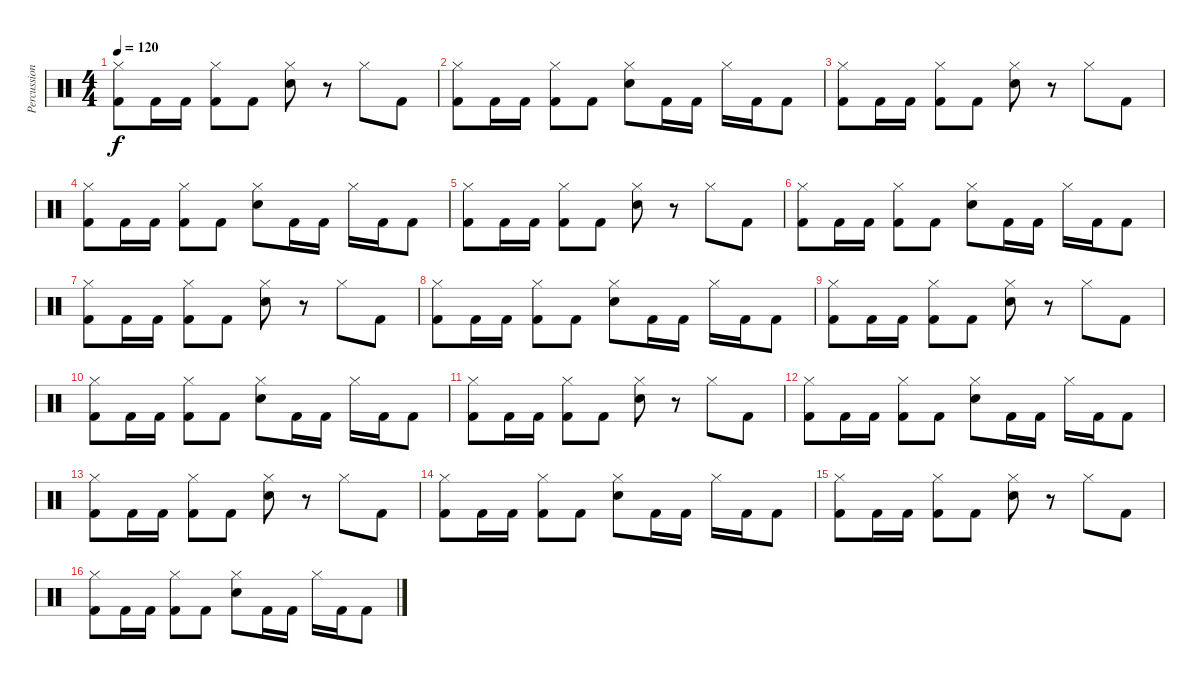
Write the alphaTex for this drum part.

\track ("Percussions" "Percussion") {instrument percussion}
\staff {score}
\articulation defaults
\ts (4 4)
\tempo 120
\clef neutral
\ks c
("Hi-Hat (closed)" "Kick (hit) 2").8{dy f} "Kick (hit) 2".16 "Kick (hit) 2".16 ("Hi-Hat (closed)" "Kick (hit) 2").8 "Kick (hit) 2".8 ("Hi-Hat (closed)" "Snare (hit) 2").8 r.8 "Hi-Hat (closed)".8 "Kick (hit) 2".8 |
("Hi-Hat (closed)" "Kick (hit) 2").8 "Kick (hit) 2".16 "Kick (hit) 2".16 ("Hi-Hat (closed)" "Kick (hit) 2").8 "Kick (hit) 2".8 ("Hi-Hat (closed)" "Snare (hit) 2").8 "Kick (hit) 2".16 "Kick (hit) 2".16 "Hi-Hat (closed)".16 "Kick (hit) 2".16 "Kick (hit) 2".8 |
("Hi-Hat (closed)" "Kick (hit) 2").8 "Kick (hit) 2".16 "Kick (hit) 2".16 ("Hi-Hat (closed)" "Kick (hit) 2").8 "Kick (hit) 2".8 ("Hi-Hat (closed)" "Snare (hit) 2").8 r.8 "Hi-Hat (closed)".8 "Kick (hit) 2".8 |
("Hi-Hat (closed)" "Kick (hit) 2").8 "Kick (hit) 2".16 "Kick (hit) 2".16 ("Hi-Hat (closed)" "Kick (hit) 2").8 "Kick (hit) 2".8 ("Hi-Hat (closed)" "Snare (hit) 2").8 "Kick (hit) 2".16 "Kick (hit) 2".16 "Hi-Hat (closed)".16 "Kick (hit) 2".16 "Kick (hit) 2".8 |
("Hi-Hat (closed)" "Kick (hit) 2").8 "Kick (hit) 2".16 "Kick (hit) 2".16 ("Hi-Hat (closed)" "Kick (hit) 2").8 "Kick (hit) 2".8 ("Hi-Hat (closed)" "Snare (hit) 2").8 r.8 "Hi-Hat (closed)".8 "Kick (hit) 2".8 |
("Hi-Hat (closed)" "Kick (hit) 2").8 "Kick (hit) 2".16 "Kick (hit) 2".16 ("Hi-Hat (closed)" "Kick (hit) 2").8 "Kick (hit) 2".8 ("Hi-Hat (closed)" "Snare (hit) 2").8 "Kick (hit) 2".16 "Kick (hit) 2".16 "Hi-Hat (closed)".16 "Kick (hit) 2".16 "Kick (hit) 2".8 |
("Hi-Hat (closed)" "Kick (hit) 2").8 "Kick (hit) 2".16 "Kick (hit) 2".16 ("Hi-Hat (closed)" "Kick (hit) 2").8 "Kick (hit) 2".8 ("Hi-Hat (closed)" "Snare (hit) 2").8 r.8 "Hi-Hat (closed)".8 "Kick (hit) 2".8 |
("Hi-Hat (closed)" "Kick (hit) 2").8 "Kick (hit) 2".16 "Kick (hit) 2".16 ("Hi-Hat (closed)" "Kick (hit) 2").8 "Kick (hit) 2".8 ("Hi-Hat (closed)" "Snare (hit) 2").8 "Kick (hit) 2".16 "Kick (hit) 2".16 "Hi-Hat (closed)".16 "Kick (hit) 2".16 "Kick (hit) 2".8 |
("Hi-Hat (closed)" "Kick (hit) 2").8 "Kick (hit) 2".16 "Kick (hit) 2".16 ("Hi-Hat (closed)" "Kick (hit) 2").8 "Kick (hit) 2".8 ("Hi-Hat (closed)" "Snare (hit) 2").8 r.8 "Hi-Hat (closed)".8 "Kick (hit) 2".8 |
("Hi-Hat (closed)" "Kick (hit) 2").8 "Kick (hit) 2".16 "Kick (hit) 2".16 ("Hi-Hat (closed)" "Kick (hit) 2").8 "Kick (hit) 2".8 ("Hi-Hat (closed)" "Snare (hit) 2").8 "Kick (hit) 2".16 "Kick (hit) 2".16 "Hi-Hat (closed)".16 "Kick (hit) 2".16 "Kick (hit) 2".8 |
("Hi-Hat (closed)" "Kick (hit) 2").8 "Kick (hit) 2".16 "Kick (hit) 2".16 ("Hi-Hat (closed)" "Kick (hit) 2").8 "Kick (hit) 2".8 ("Hi-Hat (closed)" "Snare (hit) 2").8 r.8 "Hi-Hat (closed)".8 "Kick (hit) 2".8 |
("Hi-Hat (closed)" "Kick (hit) 2").8 "Kick (hit) 2".16 "Kick (hit) 2".16 ("Hi-Hat (closed)" "Kick (hit) 2").8 "Kick (hit) 2".8 ("Hi-Hat (closed)" "Snare (hit) 2").8 "Kick (hit) 2".16 "Kick (hit) 2".16 "Hi-Hat (closed)".16 "Kick (hit) 2".16 "Kick (hit) 2".8 |
("Hi-Hat (closed)" "Kick (hit) 2").8 "Kick (hit) 2".16 "Kick (hit) 2".16 ("Hi-Hat (closed)" "Kick (hit) 2").8 "Kick (hit) 2".8 ("Hi-Hat (closed)" "Snare (hit) 2").8 r.8 "Hi-Hat (closed)".8 "Kick (hit) 2".8 |
("Hi-Hat (closed)" "Kick (hit) 2").8 "Kick (hit) 2".16 "Kick (hit) 2".16 ("Hi-Hat (closed)" "Kick (hit) 2").8 "Kick (hit) 2".8 ("Hi-Hat (closed)" "Snare (hit) 2").8 "Kick (hit) 2".16 "Kick (hit) 2".16 "Hi-Hat (closed)".16 "Kick (hit) 2".16 "Kick (hit) 2".8 |
("Hi-Hat (closed)" "Kick (hit) 2").8 "Kick (hit) 2".16 "Kick (hit) 2".16 ("Hi-Hat (closed)" "Kick (hit) 2").8 "Kick (hit) 2".8 ("Hi-Hat (closed)" "Snare (hit) 2").8 r.8 "Hi-Hat (closed)".8 "Kick (hit) 2".8 |
("Hi-Hat (closed)" "Kick (hit) 2").8 "Kick (hit) 2".16 "Kick (hit) 2".16 ("Hi-Hat (closed)" "Kick (hit) 2").8 "Kick (hit) 2".8 ("Hi-Hat (closed)" "Snare (hit) 2").8 "Kick (hit) 2".16 "Kick (hit) 2".16 "Hi-Hat (closed)".16 "Kick (hit) 2".16 "Kick (hit) 2".8
